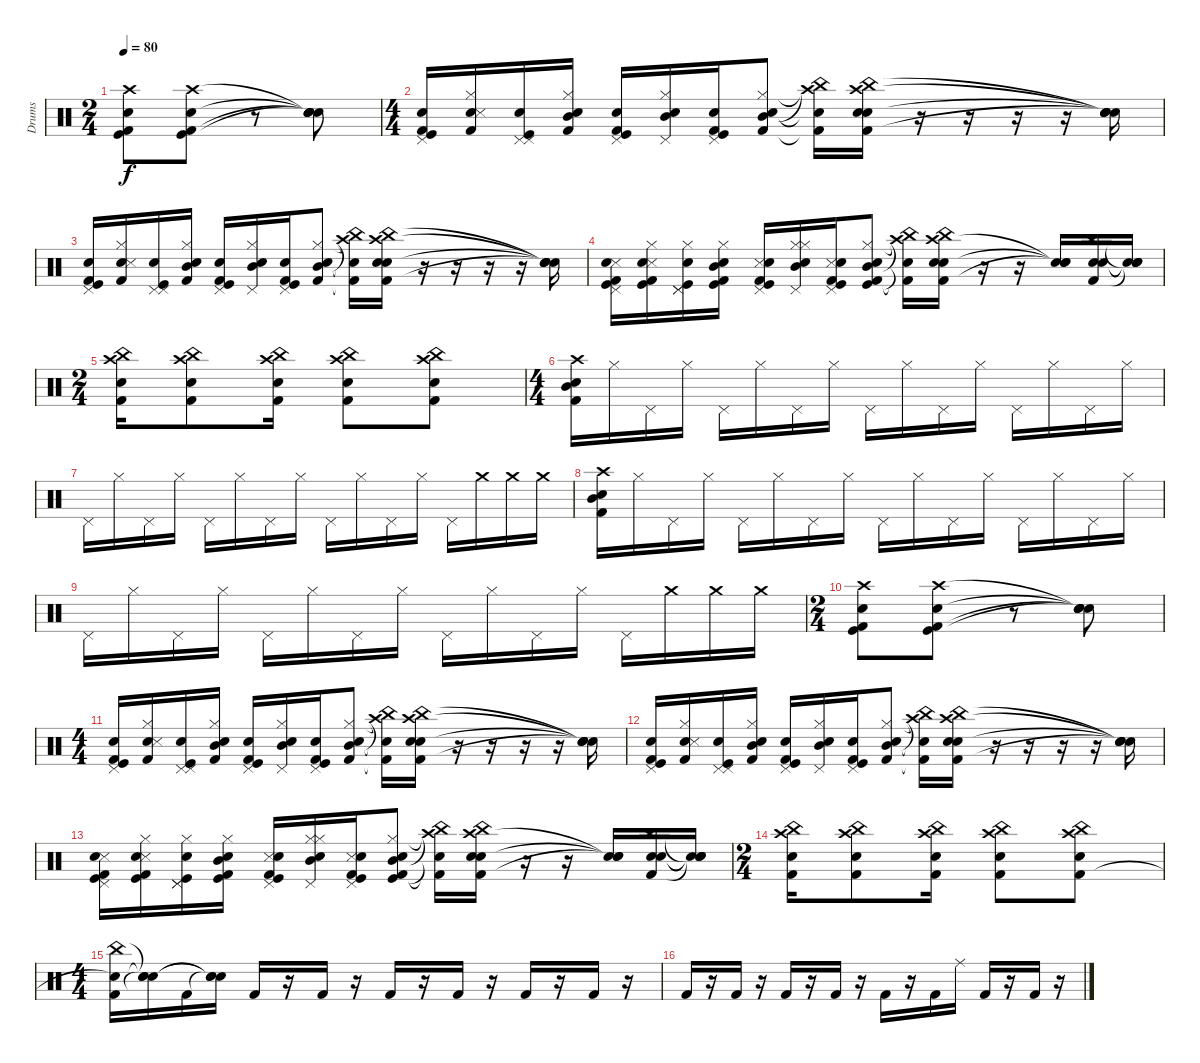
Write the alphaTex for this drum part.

\track ("Drums" "Drums") {instrument percussion}
\staff {score}
\articulation defaults
\ts (2 4)
\tempo 80
\clef neutral
\ks c
("Kick (hit) 2" "Snare (hit) 2" "Kick (hit)" "Crash high (hit)").8{dy f} ("Kick (hit) 2" "Snare (hit) 2" "Kick (hit)" "Crash high (hit)").8 r.8 ("Snare (hit)"{t} "Snare (hit)"{t} "Snare (hit)"{t} "Snare (hit)"{t}).8 |
\ts (4 4)
("Kick (hit) 2" "Electric Snare (hit)" "Pedal Hi-Hat (hit)" "Kick (hit)").16{volume 16} ("Kick (hit) 2" "Electric Snare (hit)" "Hi-Hat (closed)" "Snare (side stick) 3").16 ("Pedal Hi-Hat (hit)" "Electric Snare (hit)" "Pedal Hi-Hat (hit)" "Kick (hit)").16 ("Kick (hit) 2" "Electric Snare (hit)" "Hi-Hat (closed)" "Mid Tom (hit)").16 ("Kick (hit) 2" "Electric Snare (hit)" "Pedal Hi-Hat (hit)" "Kick (hit)").16 ("Pedal Hi-Hat (hit)" "Electric Snare (hit)" "Hi-Hat (closed)" "Mid Tom (hit)").16 ("Kick (hit) 2" "Electric Snare (hit)" "Pedal Hi-Hat (hit)" "Kick (hit)").16 ("Kick (hit) 2" "Electric Snare (hit)" "Hi-Hat (closed)" "Mid Tom (hit)").8 ("Kick (hit) 2"{t} "Snare (hit) 2"{t} "Crash high (hit)"{t} "China (hit)"{t}).16 ("Kick (hit) 2" "Snare (hit) 2" "Crash high (hit)" "China (hit)" "Electric Snare (hit)").16 r.16 r.16 r.16 r.16 ("Snare (hit)"{t} "Snare (hit)"{t} "Snare (hit)"{t} "Snare (hit)"{t}).16 |
("Kick (hit) 2" "Electric Snare (hit)" "Pedal Hi-Hat (hit)" "Kick (hit)").16{volume 16} ("Kick (hit) 2" "Electric Snare (hit)" "Hi-Hat (closed)" "Snare (side stick) 3").16 ("Pedal Hi-Hat (hit)" "Electric Snare (hit)" "Pedal Hi-Hat (hit)" "Kick (hit)").16 ("Kick (hit) 2" "Electric Snare (hit)" "Hi-Hat (closed)" "Mid Tom (hit)").16 ("Kick (hit) 2" "Electric Snare (hit)" "Pedal Hi-Hat (hit)" "Kick (hit)").16 ("Pedal Hi-Hat (hit)" "Electric Snare (hit)" "Hi-Hat (closed)" "Mid Tom (hit)").16 ("Kick (hit) 2" "Electric Snare (hit)" "Pedal Hi-Hat (hit)" "Kick (hit)").16 ("Kick (hit) 2" "Electric Snare (hit)" "Hi-Hat (closed)" "Mid Tom (hit)").8 ("Kick (hit) 2"{t} "Snare (hit) 2"{t} "Crash high (hit)"{t} "China (hit)"{t}).16 ("Kick (hit) 2" "Snare (hit) 2" "Crash high (hit)" "China (hit)" "Electric Snare (hit)").16 r.16 r.16 r.16 r.16 ("Snare (hit)"{t} "Snare (hit)"{t} "Snare (hit)"{t} "Snare (hit)"{t}).16 |
("Kick (hit) 2" "Snare (side stick) 3" "Pedal Hi-Hat (hit)" "Kick (hit)" "Electric Snare (hit)").16{volume 16} ("Kick (hit) 2" "Kick (hit)" "Hi-Hat (closed)" "Snare (side stick) 3" "Electric Snare (hit)").16 ("Pedal Hi-Hat (hit)" "Hi-Hat (closed)" "Pedal Hi-Hat (hit)" "Kick (hit)" "Electric Snare (hit)").16 ("Kick (hit) 2" "Kick (hit)" "Hi-Hat (closed)" "Mid Tom (hit)" "Electric Snare (hit)").16 ("Kick (hit) 2" "Snare (side stick) 3" "Pedal Hi-Hat (hit)" "Kick (hit)" "Electric Snare (hit)").16 ("Pedal Hi-Hat (hit)" "Hi-Hat (closed)" "Hi-Hat (closed)" "Mid Tom (hit)" "Electric Snare (hit)").16 ("Kick (hit) 2" "Snare (side stick) 3" "Pedal Hi-Hat (hit)" "Kick (hit)" "Electric Snare (hit)").16 ("Kick (hit) 2" "Kick (hit)" "Hi-Hat (closed)" "Mid Tom (hit)" "Electric Snare (hit)").8 ("Kick (hit) 2"{t} "Snare (hit) 2"{t} "Crash high (hit)"{t} "China (hit)"{t}).16 ("Kick (hit) 2" "Snare (hit) 2" "Crash high (hit)" "China (hit)" "Electric Snare (hit)").16 r.16 r.16 ("Snare (hit)"{t} "Snare (hit)"{t} "Snare (hit)"{t}).16 ("Kick (hit) 2" "Crash high (hit)" "Snare (hit) 2" "Electric Snare (hit)").16 ("Snare (hit)"{t} "Snare (hit)"{t} "Snare (hit)"{t} "Snare (hit)"{t}).16 |
\ts (2 4)
("Snare (hit) 2" "Kick (hit) 2" "Crash high (hit)" "China (hit)").16 ("Snare (hit) 2" "Kick (hit) 2" "Crash high (hit)" "China (hit)").8 ("Snare (hit) 2" "Kick (hit) 2" "Crash high (hit)" "China (hit)").16 ("Snare (hit) 2" "Kick (hit) 2" "Crash high (hit)" "China (hit)").8 ("Snare (hit) 2" "Kick (hit) 2" "Crash high (hit)" "China (hit)").8 |
\ts (4 4)
("Snare (hit) 2" "Kick (hit) 2" "Crash high (hit)" "Mid Tom (hit)").16 "Hi-Hat (closed)".16 "Pedal Hi-Hat (hit)".16 "Hi-Hat (closed)".16 "Pedal Hi-Hat (hit)".16 "Hi-Hat (closed)".16 "Pedal Hi-Hat (hit)".16 "Hi-Hat (closed)".16 "Pedal Hi-Hat (hit)".16 "Hi-Hat (closed)".16 "Pedal Hi-Hat (hit)".16 "Hi-Hat (closed)".16 "Pedal Hi-Hat (hit)".16 "Hi-Hat (closed)".16 "Pedal Hi-Hat (hit)".16 "Hi-Hat (closed)".16 |
"Pedal Hi-Hat (hit)".16 "Hi-Hat (closed)".16 "Pedal Hi-Hat (hit)".16 "Hi-Hat (closed)".16 "Pedal Hi-Hat (hit)".16 "Hi-Hat (closed)".16 "Pedal Hi-Hat (hit)".16 "Hi-Hat (closed)".16 "Pedal Hi-Hat (hit)".16 "Hi-Hat (closed)".16 "Pedal Hi-Hat (hit)".16 "Hi-Hat (closed)".16 "Pedal Hi-Hat (hit)".16 "Crash medium (hit)".16 "Crash medium (hit)".16 "Crash medium (hit)".16 |
("Snare (hit) 2" "Kick (hit) 2" "Crash high (hit)" "Mid Tom (hit)").16 "Hi-Hat (closed)".16 "Pedal Hi-Hat (hit)".16 "Hi-Hat (closed)".16 "Pedal Hi-Hat (hit)".16 "Hi-Hat (closed)".16 "Pedal Hi-Hat (hit)".16 "Hi-Hat (closed)".16 "Pedal Hi-Hat (hit)".16 "Hi-Hat (closed)".16 "Pedal Hi-Hat (hit)".16 "Hi-Hat (closed)".16 "Pedal Hi-Hat (hit)".16 "Hi-Hat (closed)".16 "Pedal Hi-Hat (hit)".16 "Hi-Hat (closed)".16 |
"Pedal Hi-Hat (hit)".16 "Hi-Hat (closed)".16 "Pedal Hi-Hat (hit)".16 "Hi-Hat (closed)".16 "Pedal Hi-Hat (hit)".16 "Hi-Hat (closed)".16 "Pedal Hi-Hat (hit)".16 "Hi-Hat (closed)".16 "Pedal Hi-Hat (hit)".16 "Hi-Hat (closed)".16 "Pedal Hi-Hat (hit)".16 "Hi-Hat (closed)".16 "Pedal Hi-Hat (hit)".16 "Crash medium (hit)".16 "Crash medium (hit)".16 "Crash medium (hit)".16 |
\ts (2 4)
("Kick (hit) 2" "Snare (hit) 2" "Kick (hit)" "Crash high (hit)").8 ("Kick (hit) 2" "Snare (hit) 2" "Kick (hit)" "Crash high (hit)").8 r.8 ("Snare (hit)"{t} "Snare (hit)"{t} "Snare (hit)"{t} "Snare (hit)"{t}).8 |
\ts (4 4)
("Kick (hit) 2" "Electric Snare (hit)" "Pedal Hi-Hat (hit)" "Kick (hit)").16{volume 16} ("Kick (hit) 2" "Electric Snare (hit)" "Hi-Hat (closed)" "Snare (side stick) 3").16 ("Pedal Hi-Hat (hit)" "Electric Snare (hit)" "Pedal Hi-Hat (hit)" "Kick (hit)").16 ("Kick (hit) 2" "Electric Snare (hit)" "Hi-Hat (closed)" "Mid Tom (hit)").16 ("Kick (hit) 2" "Electric Snare (hit)" "Pedal Hi-Hat (hit)" "Kick (hit)").16 ("Pedal Hi-Hat (hit)" "Electric Snare (hit)" "Hi-Hat (closed)" "Mid Tom (hit)").16 ("Kick (hit) 2" "Electric Snare (hit)" "Pedal Hi-Hat (hit)" "Kick (hit)").16 ("Kick (hit) 2" "Electric Snare (hit)" "Hi-Hat (closed)" "Mid Tom (hit)").8 ("Kick (hit) 2"{t} "Snare (hit) 2"{t} "Crash high (hit)"{t} "China (hit)"{t}).16 ("Kick (hit) 2" "Snare (hit) 2" "Crash high (hit)" "China (hit)" "Electric Snare (hit)").16 r.16 r.16 r.16 r.16 ("Snare (hit)"{t} "Snare (hit)"{t} "Snare (hit)"{t} "Snare (hit)"{t}).16 |
("Kick (hit) 2" "Electric Snare (hit)" "Pedal Hi-Hat (hit)" "Kick (hit)").16{volume 16} ("Kick (hit) 2" "Electric Snare (hit)" "Hi-Hat (closed)" "Snare (side stick) 3").16 ("Pedal Hi-Hat (hit)" "Electric Snare (hit)" "Pedal Hi-Hat (hit)" "Kick (hit)").16 ("Kick (hit) 2" "Electric Snare (hit)" "Hi-Hat (closed)" "Mid Tom (hit)").16 ("Kick (hit) 2" "Electric Snare (hit)" "Pedal Hi-Hat (hit)" "Kick (hit)").16 ("Pedal Hi-Hat (hit)" "Electric Snare (hit)" "Hi-Hat (closed)" "Mid Tom (hit)").16 ("Kick (hit) 2" "Electric Snare (hit)" "Pedal Hi-Hat (hit)" "Kick (hit)").16 ("Kick (hit) 2" "Electric Snare (hit)" "Hi-Hat (closed)" "Mid Tom (hit)").8 ("Kick (hit) 2"{t} "Snare (hit) 2"{t} "Crash high (hit)"{t} "China (hit)"{t}).16 ("Kick (hit) 2" "Snare (hit) 2" "Crash high (hit)" "China (hit)" "Electric Snare (hit)").16 r.16 r.16 r.16 r.16 ("Snare (hit)"{t} "Snare (hit)"{t} "Snare (hit)"{t} "Snare (hit)"{t}).16 |
("Kick (hit) 2" "Snare (side stick) 3" "Pedal Hi-Hat (hit)" "Kick (hit)" "Electric Snare (hit)").16{volume 16} ("Kick (hit) 2" "Kick (hit)" "Hi-Hat (closed)" "Snare (side stick) 3" "Electric Snare (hit)").16 ("Pedal Hi-Hat (hit)" "Hi-Hat (closed)" "Pedal Hi-Hat (hit)" "Kick (hit)" "Electric Snare (hit)").16 ("Kick (hit) 2" "Kick (hit)" "Hi-Hat (closed)" "Mid Tom (hit)" "Electric Snare (hit)").16 ("Kick (hit) 2" "Snare (side stick) 3" "Pedal Hi-Hat (hit)" "Kick (hit)" "Electric Snare (hit)").16 ("Pedal Hi-Hat (hit)" "Hi-Hat (closed)" "Hi-Hat (closed)" "Mid Tom (hit)" "Electric Snare (hit)").16 ("Kick (hit) 2" "Snare (side stick) 3" "Pedal Hi-Hat (hit)" "Kick (hit)" "Electric Snare (hit)").16 ("Kick (hit) 2" "Kick (hit)" "Hi-Hat (closed)" "Mid Tom (hit)" "Electric Snare (hit)").8 ("Kick (hit) 2"{t} "Snare (hit) 2"{t} "Crash high (hit)"{t} "China (hit)"{t}).16 ("Kick (hit) 2" "Snare (hit) 2" "Crash high (hit)" "China (hit)" "Electric Snare (hit)").16 r.16 r.16 ("Snare (hit)"{t} "Snare (hit)"{t} "Snare (hit)"{t}).16 ("Kick (hit) 2" "Crash high (hit)" "Snare (hit) 2" "Electric Snare (hit)").16 ("Snare (hit)"{t} "Snare (hit)"{t} "Snare (hit)"{t} "Snare (hit)"{t}).16 |
\ts (2 4)
("Snare (hit) 2" "Kick (hit) 2" "Crash high (hit)" "China (hit)").16 ("Snare (hit) 2" "Kick (hit) 2" "Crash high (hit)" "China (hit)").8 ("Snare (hit) 2" "Kick (hit) 2" "Crash high (hit)" "China (hit)").16 ("Snare (hit) 2" "Kick (hit) 2" "Crash high (hit)" "China (hit)").8 ("Snare (hit) 2" "Kick (hit) 2" "Crash high (hit)" "China (hit)").8 |
\ts (4 4)
("Kick (hit) 2" "Snare (hit)"{t} "China (hit)").16 ("Snare (hit)"{t} "Snare (hit)"{t} "Snare (hit)"{t}).16 "Kick (hit) 2".16 ("Snare (hit)"{t} "Snare (hit)"{t} "Snare (hit)"{t}).16 "Kick (hit) 2".16 r.16 "Kick (hit) 2".16 r.16 "Kick (hit) 2".16 r.16 "Kick (hit) 2".16 r.16 "Kick (hit) 2".16 r.16 "Kick (hit) 2".16 r.16 |
"Kick (hit) 2".16 r.16 "Kick (hit) 2".16 r.16 "Kick (hit) 2".16 r.16 "Kick (hit) 2".16 r.16 "Kick (hit) 2".16 r.16 "Kick (hit) 2".16 "Ride (middle)".16 "Kick (hit) 2".16 r.16 "Kick (hit) 2".16 r.16
